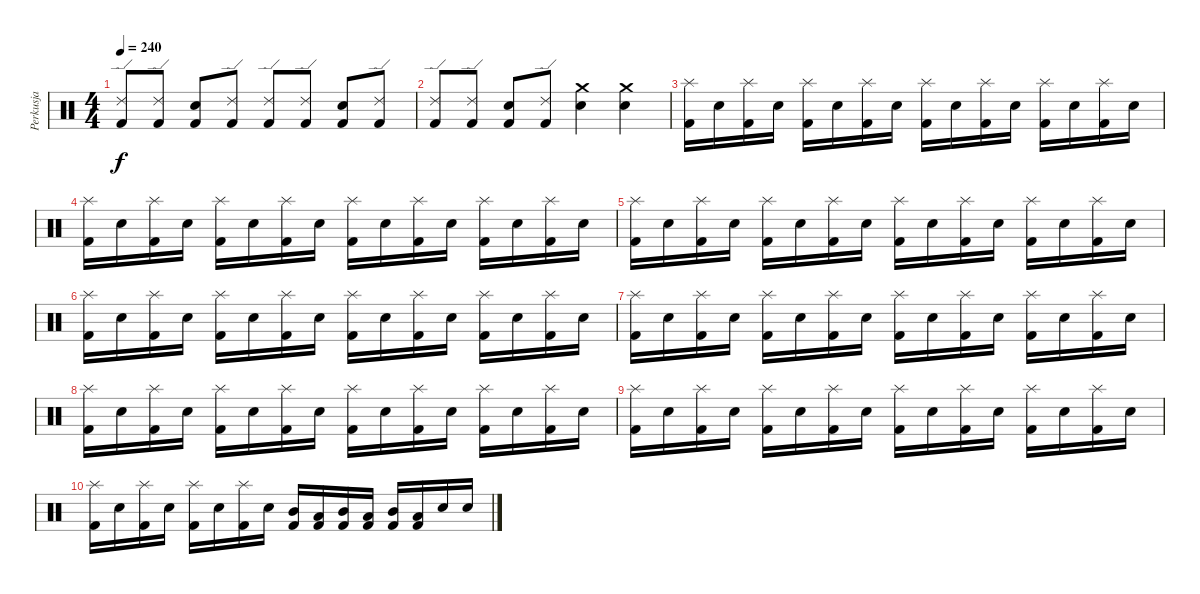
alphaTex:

\track ("Perkusja" "Perkusja") {instrument percussion}
\staff {score}
\articulation defaults
\ts (4 4)
\tempo 240
\clef neutral
\ks c
("Ride (edge) 2" "Kick (hit) 2").8{dy f} ("Ride (edge) 2" "Kick (hit) 2").8 ("Snare (hit) 2" "Kick (hit) 2").8 ("Ride (edge) 2" "Kick (hit) 2").8 ("Ride (edge) 2" "Kick (hit) 2").8 ("Ride (edge) 2" "Kick (hit) 2").8 ("Snare (hit) 2" "Kick (hit) 2").8 ("Ride (edge) 2" "Kick (hit) 2").8 |
("Ride (edge) 2" "Kick (hit) 2").8 ("Ride (edge) 2" "Kick (hit) 2").8 ("Snare (hit) 2" "Kick (hit) 2").8 ("Ride (edge) 2" "Kick (hit) 2").8 ("Crash medium (hit)" "Snare (hit) 2").4 ("Crash medium (hit)" "Snare (hit) 2").4 |
("Splash (hit)" "Kick (hit) 2").16 "Snare (hit) 2".16 ("Splash (hit)" "Kick (hit) 2").16 "Snare (hit) 2".16 ("Splash (hit)" "Kick (hit) 2").16 "Snare (hit) 2".16 ("Splash (hit)" "Kick (hit) 2").16 "Snare (hit) 2".16 ("Splash (hit)" "Kick (hit) 2").16 "Snare (hit) 2".16 ("Splash (hit)" "Kick (hit) 2").16 "Snare (hit) 2".16 ("Splash (hit)" "Kick (hit) 2").16 "Snare (hit) 2".16 ("Splash (hit)" "Kick (hit) 2").16 "Snare (hit) 2".16 |
("Splash (hit)" "Kick (hit) 2").16 "Snare (hit) 2".16 ("Splash (hit)" "Kick (hit) 2").16 "Snare (hit) 2".16 ("Splash (hit)" "Kick (hit) 2").16 "Snare (hit) 2".16 ("Splash (hit)" "Kick (hit) 2").16 "Snare (hit) 2".16 ("Splash (hit)" "Kick (hit) 2").16 "Snare (hit) 2".16 ("Splash (hit)" "Kick (hit) 2").16 "Snare (hit) 2".16 ("Splash (hit)" "Kick (hit) 2").16 "Snare (hit) 2".16 ("Splash (hit)" "Kick (hit) 2").16 "Snare (hit) 2".16 |
("Splash (hit)" "Kick (hit) 2").16 "Snare (hit) 2".16 ("Splash (hit)" "Kick (hit) 2").16 "Snare (hit) 2".16 ("Splash (hit)" "Kick (hit) 2").16 "Snare (hit) 2".16 ("Splash (hit)" "Kick (hit) 2").16 "Snare (hit) 2".16 ("Splash (hit)" "Kick (hit) 2").16 "Snare (hit) 2".16 ("Splash (hit)" "Kick (hit) 2").16 "Snare (hit) 2".16 ("Splash (hit)" "Kick (hit) 2").16 "Snare (hit) 2".16 ("Splash (hit)" "Kick (hit) 2").16 "Snare (hit) 2".16 |
("Splash (hit)" "Kick (hit) 2").16 "Snare (hit) 2".16 ("Splash (hit)" "Kick (hit) 2").16 "Snare (hit) 2".16 ("Splash (hit)" "Kick (hit) 2").16 "Snare (hit) 2".16 ("Splash (hit)" "Kick (hit) 2").16 "Snare (hit) 2".16 ("Splash (hit)" "Kick (hit) 2").16 "Snare (hit) 2".16 ("Splash (hit)" "Kick (hit) 2").16 "Snare (hit) 2".16 ("Splash (hit)" "Kick (hit) 2").16 "Snare (hit) 2".16 ("Splash (hit)" "Kick (hit) 2").16 "Snare (hit) 2".16 |
("Splash (hit)" "Kick (hit) 2").16 "Snare (hit) 2".16 ("Splash (hit)" "Kick (hit) 2").16 "Snare (hit) 2".16 ("Splash (hit)" "Kick (hit) 2").16 "Snare (hit) 2".16 ("Splash (hit)" "Kick (hit) 2").16 "Snare (hit) 2".16 ("Splash (hit)" "Kick (hit) 2").16 "Snare (hit) 2".16 ("Splash (hit)" "Kick (hit) 2").16 "Snare (hit) 2".16 ("Splash (hit)" "Kick (hit) 2").16 "Snare (hit) 2".16 ("Splash (hit)" "Kick (hit) 2").16 "Snare (hit) 2".16 |
("Splash (hit)" "Kick (hit) 2").16 "Snare (hit) 2".16 ("Splash (hit)" "Kick (hit) 2").16 "Snare (hit) 2".16 ("Splash (hit)" "Kick (hit) 2").16 "Snare (hit) 2".16 ("Splash (hit)" "Kick (hit) 2").16 "Snare (hit) 2".16 ("Splash (hit)" "Kick (hit) 2").16 "Snare (hit) 2".16 ("Splash (hit)" "Kick (hit) 2").16 "Snare (hit) 2".16 ("Splash (hit)" "Kick (hit) 2").16 "Snare (hit) 2".16 ("Splash (hit)" "Kick (hit) 2").16 "Snare (hit) 2".16 |
("Splash (hit)" "Kick (hit) 2").16 "Snare (hit) 2".16 ("Splash (hit)" "Kick (hit) 2").16 "Snare (hit) 2".16 ("Splash (hit)" "Kick (hit) 2").16 "Snare (hit) 2".16 ("Splash (hit)" "Kick (hit) 2").16 "Snare (hit) 2".16 ("Splash (hit)" "Kick (hit) 2").16 "Snare (hit) 2".16 ("Splash (hit)" "Kick (hit) 2").16 "Snare (hit) 2".16 ("Splash (hit)" "Kick (hit) 2").16 "Snare (hit) 2".16 ("Splash (hit)" "Kick (hit) 2").16 "Snare (hit) 2".16 |
("Splash (hit)" "Kick (hit) 2").16 "Snare (hit) 2".16 ("Splash (hit)" "Kick (hit) 2").16 "Snare (hit) 2".16 ("Splash (hit)" "Kick (hit) 2").16 "Snare (hit) 2".16 ("Splash (hit)" "Kick (hit) 2").16 "Snare (hit) 2".16 ("Mid Tom (hit)" "Kick (hit) 2").16 ("Low Tom (hit)" "Kick (hit) 2").16 ("Mid Tom (hit)" "Kick (hit) 2").16 ("Low Tom (hit)" "Kick (hit) 2").16 ("Mid Tom (hit)" "Kick (hit) 2").16 ("Low Tom (hit)" "Kick (hit) 2").16 "Snare (hit) 2".16 "Snare (hit) 2".16
